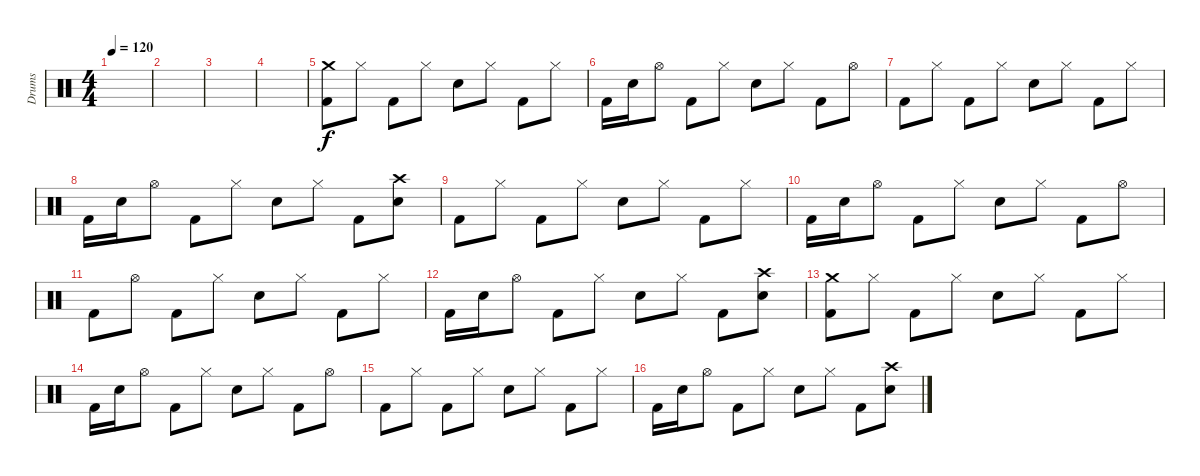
\track ("Drums" "Drums") {instrument percussion}
\staff {score}
\articulation defaults
\ts (4 4)
\tempo 120
\tempo 118
\tempo 120
\clef neutral
\ks c
|
|
|
|
("Crash medium (hit)" "Kick (hit) 2").8 "Hi-Hat (closed)".8 "Kick (hit) 2".8 "Hi-Hat (closed)".8 "Snare (hit) 2".8 "Hi-Hat (closed)".8 "Kick (hit) 2".8 "Hi-Hat (closed)".8 |
"Kick (hit) 2".16 "Snare (hit) 2".16 "Hi-Hat (open)".8 "Kick (hit) 2".8 "Hi-Hat (closed)".8 "Snare (hit) 2".8 "Hi-Hat (closed)".8 "Kick (hit) 2".8 "Hi-Hat (open)".8 |
"Kick (hit) 2".8 "Hi-Hat (closed)".8 "Kick (hit) 2".8 "Hi-Hat (closed)".8 "Snare (hit) 2".8 "Hi-Hat (closed)".8 "Kick (hit) 2".8 "Hi-Hat (closed)".8 |
"Kick (hit) 2".16 "Snare (hit) 2".16 "Hi-Hat (open)".8 "Kick (hit) 2".8 "Hi-Hat (closed)".8 "Snare (hit) 2".8 "Hi-Hat (closed)".8 "Kick (hit) 2".8 ("Crash high (hit)" "Snare (hit) 2").8 |
"Kick (hit) 2".8 "Hi-Hat (closed)".8 "Kick (hit) 2".8 "Hi-Hat (closed)".8 "Snare (hit) 2".8 "Hi-Hat (closed)".8 "Kick (hit) 2".8 "Hi-Hat (closed)".8 |
"Kick (hit) 2".16 "Snare (hit) 2".16 "Hi-Hat (open)".8 "Kick (hit) 2".8 "Hi-Hat (closed)".8 "Snare (hit) 2".8 "Hi-Hat (closed)".8 "Kick (hit) 2".8 "Hi-Hat (open)".8 |
"Kick (hit) 2".8 "Hi-Hat (open)".8 "Kick (hit) 2".8 "Hi-Hat (closed)".8 "Snare (hit) 2".8 "Hi-Hat (closed)".8 "Kick (hit) 2".8 "Hi-Hat (closed)".8 |
"Kick (hit) 2".16 "Snare (hit) 2".16 "Hi-Hat (open)".8 "Kick (hit) 2".8 "Hi-Hat (closed)".8 "Snare (hit) 2".8 "Hi-Hat (closed)".8 "Kick (hit) 2".8 ("Crash high (hit)" "Snare (hit) 2").8 |
("Crash medium (hit)" "Kick (hit) 2").8 "Hi-Hat (closed)".8 "Kick (hit) 2".8 "Hi-Hat (closed)".8 "Snare (hit) 2".8 "Hi-Hat (closed)".8 "Kick (hit) 2".8 "Hi-Hat (closed)".8 |
"Kick (hit) 2".16 "Snare (hit) 2".16 "Hi-Hat (open)".8 "Kick (hit) 2".8 "Hi-Hat (closed)".8 "Snare (hit) 2".8 "Hi-Hat (closed)".8 "Kick (hit) 2".8 "Hi-Hat (open)".8 |
"Kick (hit) 2".8 "Hi-Hat (closed)".8 "Kick (hit) 2".8 "Hi-Hat (closed)".8 "Snare (hit) 2".8 "Hi-Hat (closed)".8 "Kick (hit) 2".8 "Hi-Hat (closed)".8 |
"Kick (hit) 2".16 "Snare (hit) 2".16 "Hi-Hat (open)".8 "Kick (hit) 2".8 "Hi-Hat (closed)".8 "Snare (hit) 2".8 "Hi-Hat (closed)".8 "Kick (hit) 2".8 ("Crash high (hit)" "Snare (hit) 2").8
